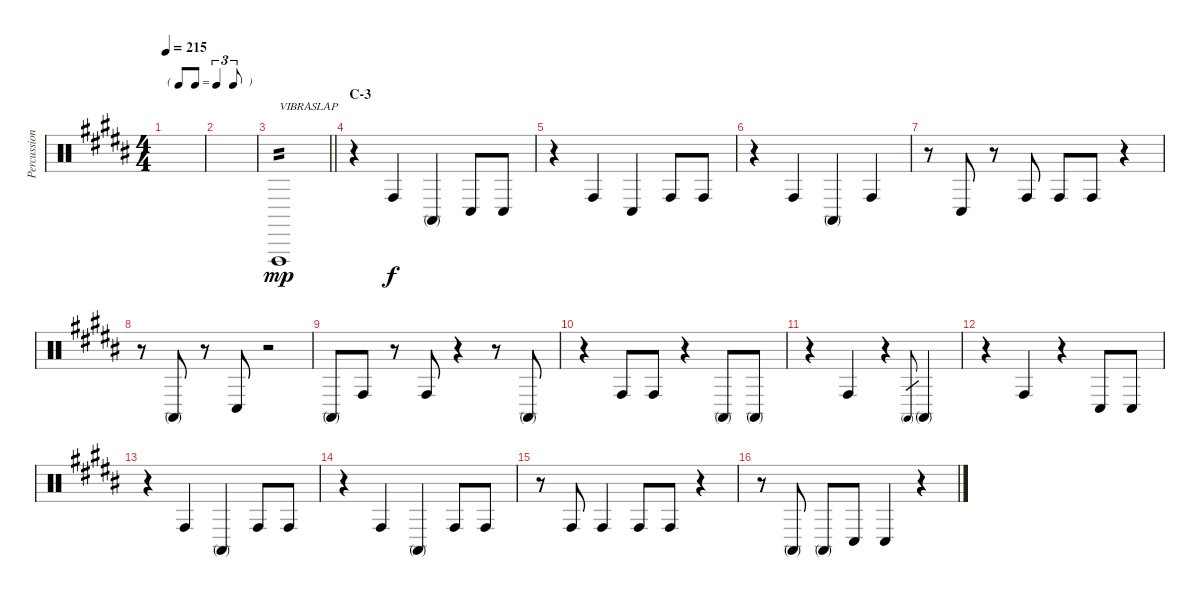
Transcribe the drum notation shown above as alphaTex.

\track ("Percussion A (Tainaka Ritsu)" "Percussion") {instrument percussion}
\staff {score}
\articulation defaults
\ts (4 4)
\tf triplet8th
\tempo 215
\clef neutral
\ks b
|
|
\barLineRight lightlight "Vibraslap (hit)".1{txt "VIBRASLAP" tp 2 dy mp}
|
\section ("" "C-3")
r.4 "Conga high (hit)".4{dy f} "Conga high (mute)".4 "Conga low (hit)".8 "Conga low (hit)".8 |
r.4 "Conga high (hit)".4 "Conga low (hit)".4 "Conga high (hit)".8 "Conga high (hit)".8 |
r.4 "Conga high (hit)".4 "Conga high (mute)".4 "Conga high (hit)".4 |
r.8 "Conga low (hit)".8 r.8 "Conga high (hit)".8 "Conga high (hit)".8 "Conga high (hit)".8 r.4 |
r.8 "Conga high (mute)".8 r.8 "Conga low (hit)".8 r.2 |
"Conga high (mute)".8 "Conga high (hit)".8 r.8 "Conga high (hit)".8 r.4 r.8 "Conga high (mute)".8 |
r.4 "Conga high (hit)".8 "Conga high (hit)".8 r.4 "Conga high (mute)".8 "Conga high (mute)".8 |
r.4 "Conga high (hit)".4 r.4 "Conga high (mute)".8{gr} "Conga high (mute)".4 |
r.4 "Conga high (hit)".4 r.4 "Conga low (hit)".8 "Conga low (hit)".8 |
r.4 "Conga high (hit)".4 "Conga high (mute)".4 "Conga high (hit)".8 "Conga high (hit)".8 |
r.4 "Conga high (hit)".4 "Conga high (mute)".4 "Conga high (hit)".8 "Conga high (hit)".8 |
r.8 "Conga high (hit)".8 "Conga high (hit)".4 "Conga high (hit)".8 "Conga high (hit)".8 r.4 |
r.8 "Conga high (mute)".8 "Conga high (mute)".8 "Conga low (hit)".8 "Conga low (hit)".4 r.4
